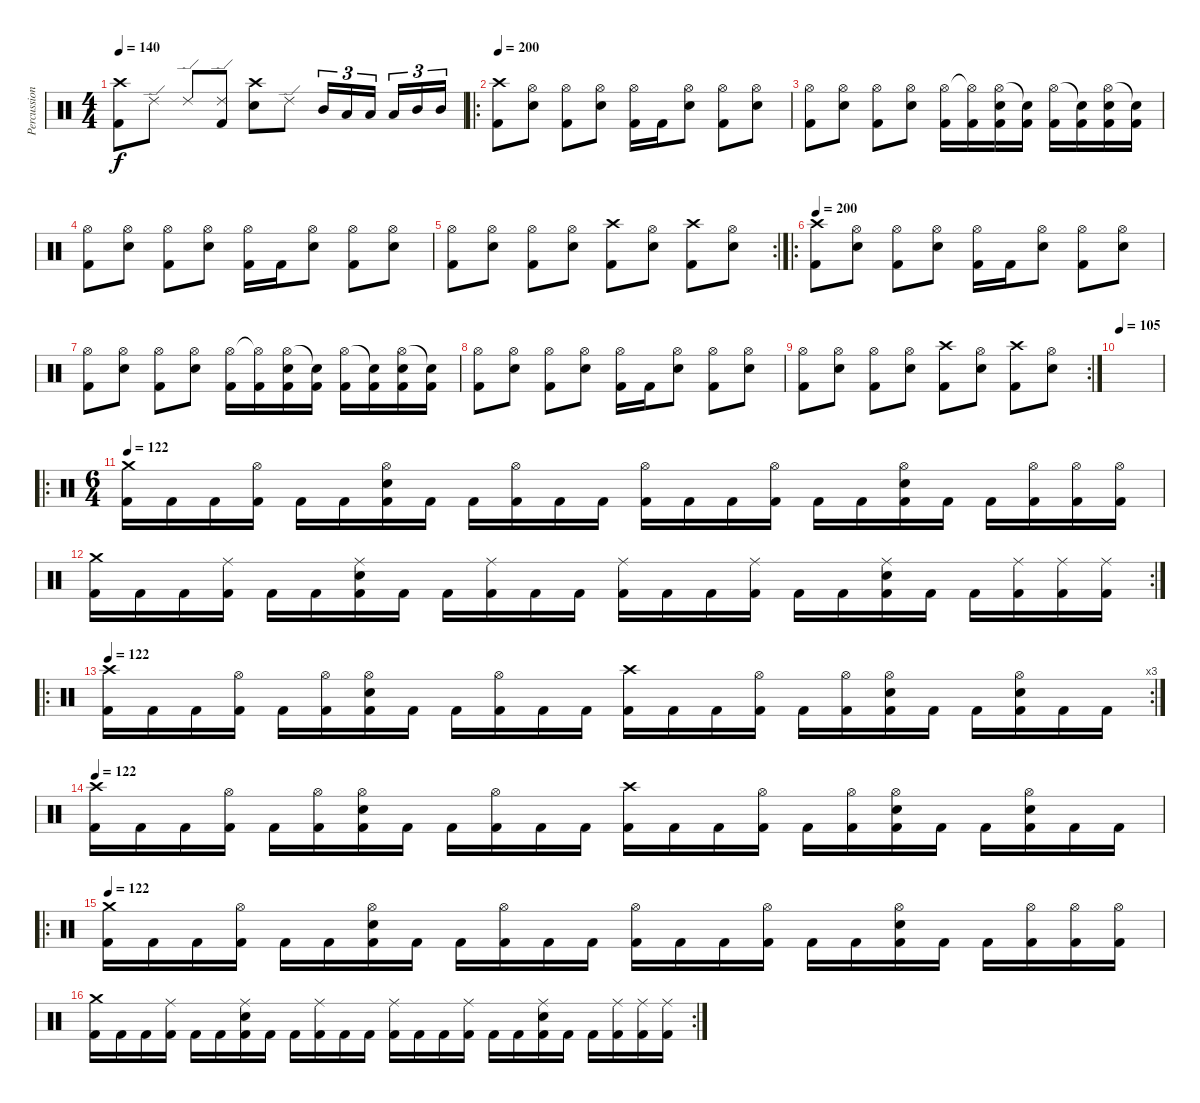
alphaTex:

\track ("Percussion" "Percussion") {instrument percussion}
\staff {score}
\articulation defaults
\ts (4 4)
\tempo 140
\clef neutral
\ks c
("Crash high (hit)" "Kick (hit) 2").8{dy f} "Ride (edge) 2".8 "Ride (edge) 2".8 ("Ride (edge) 2" "Kick (hit) 2").8 ("Crash high (hit)" "Electric Snare (hit)").8 "Ride (edge) 2".8 "Mid Tom (hit)".16{tu (3 2)} "Low Floor Tom (hit)".16{tu (3 2)} "Low Tom (hit)".16{tu (3 2)} "Low Floor Tom (hit)".16{tu (3 2)} "Mid Tom (hit)".16{tu (3 2)} "Mid Tom (hit)".16{tu (3 2)} |
\ro
\tempo 200
("Crash high (hit)" "Kick (hit) 2").8 ("Hi-Hat (open)" "Electric Snare (hit)").8 ("Hi-Hat (open)" "Kick (hit) 2").8 ("Hi-Hat (open)" "Electric Snare (hit)").8 ("Hi-Hat (open)" "Kick (hit) 2").16 "Kick (hit) 2".16 ("Hi-Hat (open)" "Electric Snare (hit)").8 ("Hi-Hat (open)" "Kick (hit) 2").8 ("Hi-Hat (open)" "Electric Snare (hit)").8 |
("Hi-Hat (open)" "Kick (hit) 2").8 ("Hi-Hat (open)" "Electric Snare (hit)").8 ("Hi-Hat (open)" "Kick (hit) 2").8 ("Hi-Hat (open)" "Electric Snare (hit)").8 ("Hi-Hat (open)" "Kick (hit) 2").16 ("Hi-Hat (open)"{t} "Kick (hit) 2").16 ("Hi-Hat (open)" "Electric Snare (hit)" "Kick (hit) 2").16 ("Snare (hit)"{t} "Kick (hit) 2").16 ("Hi-Hat (open)" "Kick (hit) 2").16 ("Snare (hit)"{t} "Kick (hit) 2").16 ("Hi-Hat (open)" "Electric Snare (hit)" "Kick (hit) 2").16 ("Snare (hit)"{t} "Kick (hit) 2").16 |
("Hi-Hat (open)" "Kick (hit) 2").8 ("Hi-Hat (open)" "Electric Snare (hit)").8 ("Hi-Hat (open)" "Kick (hit) 2").8 ("Hi-Hat (open)" "Electric Snare (hit)").8 ("Hi-Hat (open)" "Kick (hit) 2").16 "Kick (hit) 2".16 ("Hi-Hat (open)" "Electric Snare (hit)").8 ("Hi-Hat (open)" "Kick (hit) 2").8 ("Hi-Hat (open)" "Electric Snare (hit)").8 |
\rc 2
("Hi-Hat (open)" "Kick (hit) 2").8 ("Hi-Hat (open)" "Electric Snare (hit)").8 ("Hi-Hat (open)" "Kick (hit) 2").8 ("Hi-Hat (open)" "Electric Snare (hit)").8 ("Crash high (hit)" "Kick (hit) 2").8 ("Hi-Hat (open)" "Electric Snare (hit)").8 ("Crash high (hit)" "Kick (hit) 2").8 ("Hi-Hat (open)" "Electric Snare (hit)").8 |
\ro
\tempo 200
("Crash high (hit)" "Kick (hit) 2").8 ("Hi-Hat (open)" "Electric Snare (hit)").8 ("Hi-Hat (open)" "Kick (hit) 2").8 ("Hi-Hat (open)" "Electric Snare (hit)").8 ("Hi-Hat (open)" "Kick (hit) 2").16 "Kick (hit) 2".16 ("Hi-Hat (open)" "Electric Snare (hit)").8 ("Hi-Hat (open)" "Kick (hit) 2").8 ("Hi-Hat (open)" "Electric Snare (hit)").8 |
("Hi-Hat (open)" "Kick (hit) 2").8 ("Hi-Hat (open)" "Electric Snare (hit)").8 ("Hi-Hat (open)" "Kick (hit) 2").8 ("Hi-Hat (open)" "Electric Snare (hit)").8 ("Hi-Hat (open)" "Kick (hit) 2").16 ("Hi-Hat (open)"{t} "Kick (hit) 2").16 ("Hi-Hat (open)" "Electric Snare (hit)" "Kick (hit) 2").16 ("Snare (hit)"{t} "Kick (hit) 2").16 ("Hi-Hat (open)" "Kick (hit) 2").16 ("Snare (hit)"{t} "Kick (hit) 2").16 ("Hi-Hat (open)" "Electric Snare (hit)" "Kick (hit) 2").16 ("Snare (hit)"{t} "Kick (hit) 2").16 |
("Hi-Hat (open)" "Kick (hit) 2").8 ("Hi-Hat (open)" "Electric Snare (hit)").8 ("Hi-Hat (open)" "Kick (hit) 2").8 ("Hi-Hat (open)" "Electric Snare (hit)").8 ("Hi-Hat (open)" "Kick (hit) 2").16 "Kick (hit) 2".16 ("Hi-Hat (open)" "Electric Snare (hit)").8 ("Hi-Hat (open)" "Kick (hit) 2").8 ("Hi-Hat (open)" "Electric Snare (hit)").8 |
\rc 2
("Hi-Hat (open)" "Kick (hit) 2").8 ("Hi-Hat (open)" "Electric Snare (hit)").8 ("Hi-Hat (open)" "Kick (hit) 2").8 ("Hi-Hat (open)" "Electric Snare (hit)").8 ("Crash high (hit)" "Kick (hit) 2").8 ("Hi-Hat (open)" "Electric Snare (hit)").8 ("Crash high (hit)" "Kick (hit) 2").8 ("Hi-Hat (open)" "Electric Snare (hit)").8 |
\tempo 105
|
\ro
\ts (6 4)
\tempo 122
("Crash medium (hit)" "Kick (hit) 2").16 "Kick (hit) 2".16 "Kick (hit) 2".16 ("Hi-Hat (open)" "Kick (hit) 2").16 "Kick (hit) 2".16 "Kick (hit) 2".16 ("Hi-Hat (open)" "Electric Snare (hit)" "Kick (hit) 2").16 "Kick (hit) 2".16 "Kick (hit) 2".16 ("Hi-Hat (open)" "Kick (hit) 2").16 "Kick (hit) 2".16 "Kick (hit) 2".16 ("Hi-Hat (open)" "Kick (hit) 2").16 "Kick (hit) 2".16 "Kick (hit) 2".16 ("Hi-Hat (open)" "Kick (hit) 2").16 "Kick (hit) 2".16 "Kick (hit) 2".16 ("Hi-Hat (open)" "Electric Snare (hit)" "Kick (hit) 2").16 "Kick (hit) 2".16 "Kick (hit) 2".16 ("Hi-Hat (open)" "Kick (hit) 2").16 ("Hi-Hat (open)" "Kick (hit) 2").16 ("Hi-Hat (open)" "Kick (hit) 2").16 |
\rc 2
("Crash medium (hit)" "Kick (hit) 2").16 "Kick (hit) 2".16 "Kick (hit) 2".16 ("Ride (middle)" "Kick (hit) 2").16 "Kick (hit) 2".16 "Kick (hit) 2".16 ("Ride (middle)" "Electric Snare (hit)" "Kick (hit) 2").16 "Kick (hit) 2".16 "Kick (hit) 2".16 ("Ride (middle)" "Kick (hit) 2").16 "Kick (hit) 2".16 "Kick (hit) 2".16 ("Ride (middle)" "Kick (hit) 2").16 "Kick (hit) 2".16 "Kick (hit) 2".16 ("Ride (middle)" "Kick (hit) 2").16 "Kick (hit) 2".16 "Kick (hit) 2".16 ("Ride (middle)" "Electric Snare (hit)" "Kick (hit) 2").16 "Kick (hit) 2".16 "Kick (hit) 2".16 ("Ride (middle)" "Kick (hit) 2").16 ("Ride (middle)" "Kick (hit) 2").16 ("Ride (middle)" "Kick (hit) 2").16 |
\ro
\rc 3
\tempo 122
("Crash high (hit)" "Kick (hit) 2").16 "Kick (hit) 2".16 "Kick (hit) 2".16 ("Hi-Hat (open)" "Kick (hit) 2").16 "Kick (hit) 2".16 ("Hi-Hat (open)" "Kick (hit) 2").16 ("Hi-Hat (open)" "Electric Snare (hit)" "Kick (hit) 2").16 "Kick (hit) 2".16 "Kick (hit) 2".16 ("Hi-Hat (open)" "Kick (hit) 2").16 "Kick (hit) 2".16 "Kick (hit) 2".16 ("Crash high (hit)" "Kick (hit) 2").16 "Kick (hit) 2".16 "Kick (hit) 2".16 ("Hi-Hat (open)" "Kick (hit) 2").16 "Kick (hit) 2".16 ("Hi-Hat (open)" "Kick (hit) 2").16 ("Hi-Hat (open)" "Electric Snare (hit)" "Kick (hit) 2").16 "Kick (hit) 2".16 "Kick (hit) 2".16 ("Hi-Hat (open)" "Electric Snare (hit)" "Kick (hit) 2").16 "Kick (hit) 2".16 "Kick (hit) 2".16 |
\tempo 122
("Crash high (hit)" "Kick (hit) 2").16 "Kick (hit) 2".16 "Kick (hit) 2".16 ("Hi-Hat (open)" "Kick (hit) 2").16 "Kick (hit) 2".16 ("Hi-Hat (open)" "Kick (hit) 2").16 ("Hi-Hat (open)" "Electric Snare (hit)" "Kick (hit) 2").16 "Kick (hit) 2".16 "Kick (hit) 2".16 ("Hi-Hat (open)" "Kick (hit) 2").16 "Kick (hit) 2".16 "Kick (hit) 2".16 ("Crash high (hit)" "Kick (hit) 2").16 "Kick (hit) 2".16 "Kick (hit) 2".16 ("Hi-Hat (open)" "Kick (hit) 2").16 "Kick (hit) 2".16 ("Hi-Hat (open)" "Kick (hit) 2").16 ("Hi-Hat (open)" "Electric Snare (hit)" "Kick (hit) 2").16 "Kick (hit) 2".16 "Kick (hit) 2".16 ("Hi-Hat (open)" "Electric Snare (hit)" "Kick (hit) 2").16 "Kick (hit) 2".16 "Kick (hit) 2".16 |
\ro
\tempo 122
("Crash medium (hit)" "Kick (hit) 2").16 "Kick (hit) 2".16 "Kick (hit) 2".16 ("Hi-Hat (open)" "Kick (hit) 2").16 "Kick (hit) 2".16 "Kick (hit) 2".16 ("Hi-Hat (open)" "Electric Snare (hit)" "Kick (hit) 2").16 "Kick (hit) 2".16 "Kick (hit) 2".16 ("Hi-Hat (open)" "Kick (hit) 2").16 "Kick (hit) 2".16 "Kick (hit) 2".16 ("Hi-Hat (open)" "Kick (hit) 2").16 "Kick (hit) 2".16 "Kick (hit) 2".16 ("Hi-Hat (open)" "Kick (hit) 2").16 "Kick (hit) 2".16 "Kick (hit) 2".16 ("Hi-Hat (open)" "Electric Snare (hit)" "Kick (hit) 2").16 "Kick (hit) 2".16 "Kick (hit) 2".16 ("Hi-Hat (open)" "Kick (hit) 2").16 ("Hi-Hat (open)" "Kick (hit) 2").16 ("Hi-Hat (open)" "Kick (hit) 2").16 |
\rc 2
("Crash medium (hit)" "Kick (hit) 2").16 "Kick (hit) 2".16 "Kick (hit) 2".16 ("Ride (middle)" "Kick (hit) 2").16 "Kick (hit) 2".16 "Kick (hit) 2".16 ("Ride (middle)" "Electric Snare (hit)" "Kick (hit) 2").16 "Kick (hit) 2".16 "Kick (hit) 2".16 ("Ride (middle)" "Kick (hit) 2").16 "Kick (hit) 2".16 "Kick (hit) 2".16 ("Ride (middle)" "Kick (hit) 2").16 "Kick (hit) 2".16 "Kick (hit) 2".16 ("Ride (middle)" "Kick (hit) 2").16 "Kick (hit) 2".16 "Kick (hit) 2".16 ("Ride (middle)" "Electric Snare (hit)" "Kick (hit) 2").16 "Kick (hit) 2".16 "Kick (hit) 2".16 ("Ride (middle)" "Kick (hit) 2").16 ("Ride (middle)" "Kick (hit) 2").16 ("Ride (middle)" "Kick (hit) 2").16
